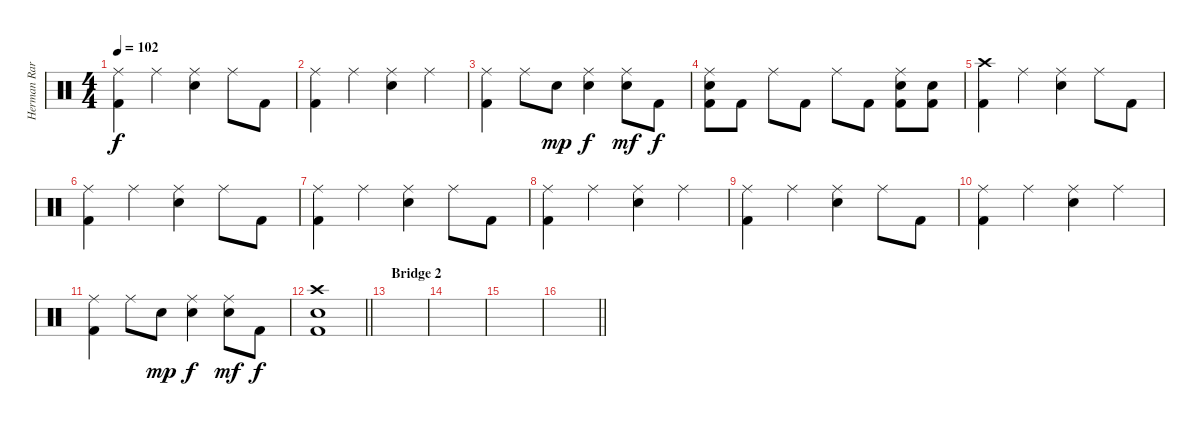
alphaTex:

\track ("Herman Rarebell" "Herman Rar") {instrument percussion}
\staff {score}
\articulation defaults
\ts (4 4)
\tempo 102
\clef neutral
\ks c
("Ride (middle)" "Kick (hit) 2").4{dy f} "Ride (middle)".4 ("Ride (middle)" "Electric Snare (hit)").4 "Ride (middle)".8 "Kick (hit) 2".8 |
("Ride (middle)" "Kick (hit) 2").4 "Ride (middle)".4 ("Ride (middle)" "Electric Snare (hit)").4 "Ride (middle)".4 |
("Ride (middle)" "Kick (hit) 2").4 "Ride (middle)".8 "Electric Snare (hit)".8{dy mp} ("Ride (middle)" "Electric Snare (hit)").4{dy f} ("Ride (middle)" "Electric Snare (hit)").8{dy mf} "Kick (hit) 2".8{dy f} |
("Ride (middle)" "Electric Snare (hit)" "Kick (hit) 2").8 "Kick (hit) 2".8 "Ride (middle)".8 "Kick (hit) 2".8 "Ride (middle)".8 "Kick (hit) 2".8 ("Ride (middle)" "Electric Snare (hit)" "Kick (hit) 2").8 ("Electric Snare (hit)" "Kick (hit) 2").8 |
("Crash high (hit)" "Kick (hit) 2").4 "Ride (middle)".4 ("Ride (middle)" "Electric Snare (hit)").4 "Ride (middle)".8 "Kick (hit) 2".8 |
("Ride (middle)" "Kick (hit) 2").4 "Ride (middle)".4 ("Ride (middle)" "Electric Snare (hit)").4 "Ride (middle)".8 "Kick (hit) 2".8 |
("Ride (middle)" "Kick (hit) 2").4 "Ride (middle)".4 ("Ride (middle)" "Electric Snare (hit)").4 "Ride (middle)".8 "Kick (hit) 2".8 |
("Ride (middle)" "Kick (hit) 2").4 "Ride (middle)".4 ("Ride (middle)" "Electric Snare (hit)").4 "Ride (middle)".4 |
("Ride (middle)" "Kick (hit) 2").4 "Ride (middle)".4 ("Ride (middle)" "Electric Snare (hit)").4 "Ride (middle)".8 "Kick (hit) 2".8 |
("Ride (middle)" "Kick (hit) 2").4 "Ride (middle)".4 ("Ride (middle)" "Electric Snare (hit)").4 "Ride (middle)".4 |
("Ride (middle)" "Kick (hit) 2").4 "Ride (middle)".8 "Electric Snare (hit)".8{dy mp} ("Ride (middle)" "Electric Snare (hit)").4{dy f} ("Ride (middle)" "Electric Snare (hit)").8{dy mf} "Kick (hit) 2".8{dy f} |
\barLineRight lightlight
("Crash high (hit)" "Electric Snare (hit)" "Kick (hit) 2").1 |
\section ("" "Bridge 2")
|
|
|
\barLineRight lightlight
